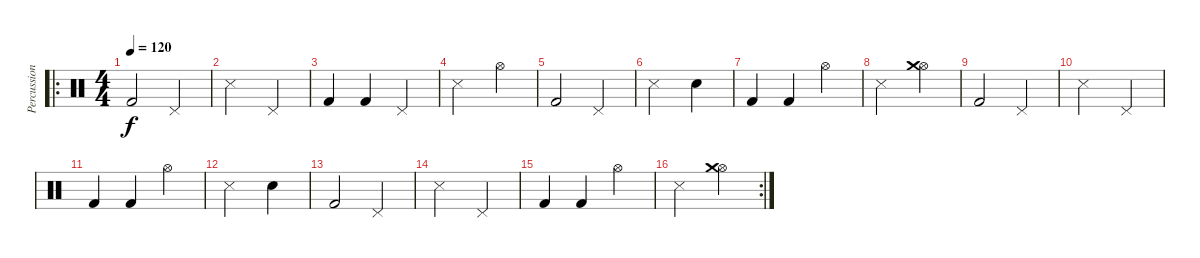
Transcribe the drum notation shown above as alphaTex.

\track ("Percussion" "Percussion") {instrument percussion}
\staff {score}
\articulation defaults
\ro
\ts (4 4)
\tempo 120
\clef neutral
\ks c "Kick (hit) 2".2{dy f} "Pedal Hi-Hat (hit)".4
|
"Snare (side stick) 3".2 "Pedal Hi-Hat (hit)".4 |
"Kick (hit) 2".4 "Kick (hit) 2".4 "Pedal Hi-Hat (hit)".4 |
"Snare (side stick) 3".2 "Hi-Hat (open)".4 |
"Kick (hit) 2".2 "Pedal Hi-Hat (hit)".4 |
"Snare (side stick) 3".2 "Snare (hit) 2".4 |
"Kick (hit) 2".4 "Kick (hit) 2".4 "Hi-Hat (open)".4 |
"Snare (side stick) 3".2 ("Hi-Hat (open)" "Crash medium (hit)").4 |
"Kick (hit) 2".2 "Pedal Hi-Hat (hit)".4 |
"Snare (side stick) 3".2 "Pedal Hi-Hat (hit)".4 |
"Kick (hit) 2".4 "Kick (hit) 2".4 "Hi-Hat (open)".4 |
"Snare (side stick) 3".2 "Snare (hit) 2".4 |
"Kick (hit) 2".2 "Pedal Hi-Hat (hit)".4 |
"Snare (side stick) 3".2 "Pedal Hi-Hat (hit)".4 |
"Kick (hit) 2".4 "Kick (hit) 2".4 "Hi-Hat (open)".4 |
\rc 2 "Snare (side stick) 3".2
("Hi-Hat (open)" "Crash medium (hit)").4
